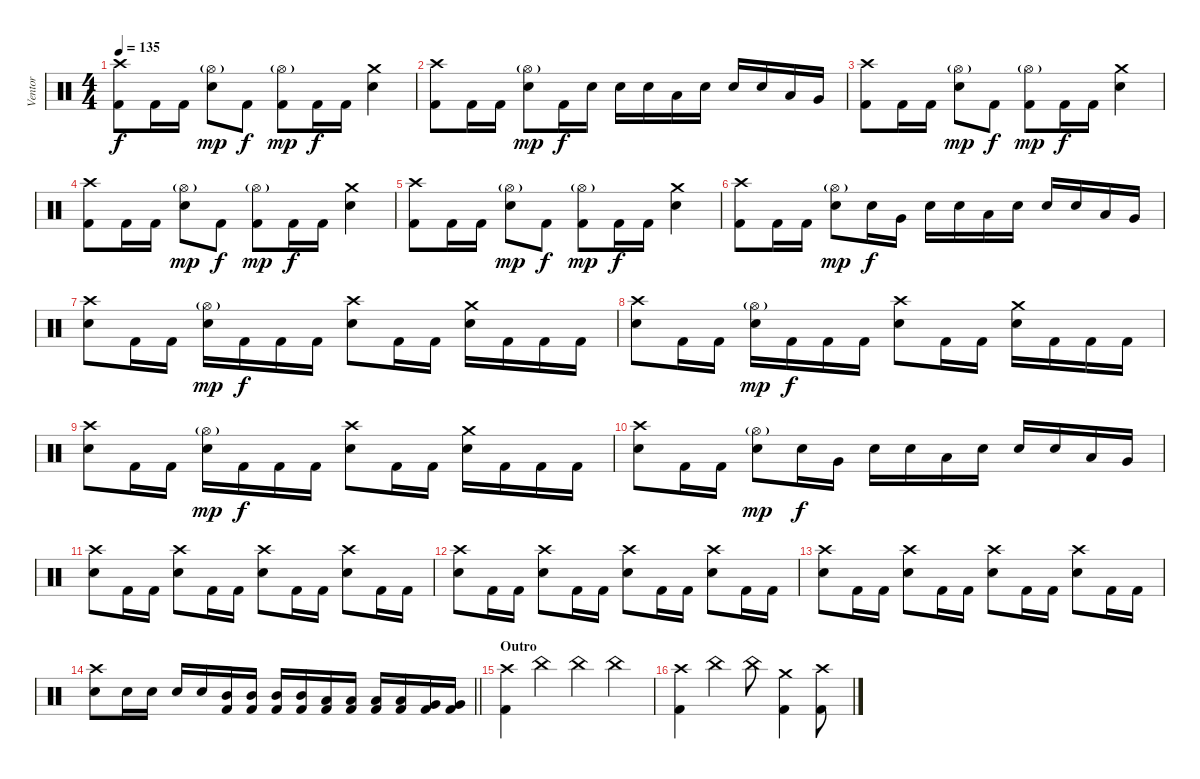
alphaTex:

\track ("Ventor" "Ventor") {instrument percussion}
\staff {score}
\articulation defaults
\ts (4 4)
\tempo 135
\clef neutral
\ks c
("Crash high (hit)" "Kick (hit) 2").8{dy f} "Kick (hit) 2".16 "Kick (hit) 2".16 ("Hi-Hat (open)"{g} "Electric Snare (hit)").8{dy mp} "Kick (hit) 2".8{dy f} ("Hi-Hat (open)"{g} "Kick (hit) 2").8{dy mp} "Kick (hit) 2".16{dy f} "Kick (hit) 2".16 ("Crash medium (hit)" "Electric Snare (hit)").4 |
("Crash high (hit)" "Kick (hit) 2").8 "Kick (hit) 2".16 "Kick (hit) 2".16 ("Hi-Hat (open)"{g} "Electric Snare (hit)").8{dy mp} "Kick (hit) 2".16{dy f} "Electric Snare (hit)".16 "Electric Snare (hit)".16 "Electric Snare (hit)".16 "Low Tom (hit)".16 "Electric Snare (hit)".16 "Electric Snare (hit)".16 "Electric Snare (hit)".16 "Low Tom (hit)".16 "Very Low Tom (hit)".16 |
("Crash high (hit)" "Kick (hit) 2").8 "Kick (hit) 2".16 "Kick (hit) 2".16 ("Hi-Hat (open)"{g} "Electric Snare (hit)").8{dy mp} "Kick (hit) 2".8{dy f} ("Hi-Hat (open)"{g} "Kick (hit) 2").8{dy mp} "Kick (hit) 2".16{dy f} "Kick (hit) 2".16 ("Crash medium (hit)" "Electric Snare (hit)").4 |
("Crash high (hit)" "Kick (hit) 2").8 "Kick (hit) 2".16 "Kick (hit) 2".16 ("Hi-Hat (open)"{g} "Electric Snare (hit)").8{dy mp} "Kick (hit) 2".8{dy f} ("Hi-Hat (open)"{g} "Kick (hit) 2").8{dy mp} "Kick (hit) 2".16{dy f} "Kick (hit) 2".16 ("Crash medium (hit)" "Electric Snare (hit)").4 |
("Crash high (hit)" "Kick (hit) 2").8 "Kick (hit) 2".16 "Kick (hit) 2".16 ("Hi-Hat (open)"{g} "Electric Snare (hit)").8{dy mp} "Kick (hit) 2".8{dy f} ("Hi-Hat (open)"{g} "Kick (hit) 2").8{dy mp} "Kick (hit) 2".16{dy f} "Kick (hit) 2".16 ("Crash medium (hit)" "Electric Snare (hit)").4 |
("Crash high (hit)" "Kick (hit) 2").8 "Kick (hit) 2".16 "Kick (hit) 2".16 ("Hi-Hat (open)"{g} "Electric Snare (hit)").8{dy mp} "Electric Snare (hit)".16{dy f} "Very Low Tom (hit)".16 "Electric Snare (hit)".16 "Electric Snare (hit)".16 "Low Tom (hit)".16 "Electric Snare (hit)".16 "Electric Snare (hit)".16 "Electric Snare (hit)".16 "Low Tom (hit)".16 "Very Low Tom (hit)".16 |
("Crash high (hit)" "Electric Snare (hit)").8 "Kick (hit) 2".16 "Kick (hit) 2".16 ("Hi-Hat (open)"{g} "Electric Snare (hit)").16{dy mp} "Kick (hit) 2".16{dy f} "Kick (hit) 2".16 "Kick (hit) 2".16 ("Crash high (hit)" "Electric Snare (hit)").8 "Kick (hit) 2".16 "Kick (hit) 2".16 ("Crash medium (hit)" "Electric Snare (hit)").16 "Kick (hit) 2".16 "Kick (hit) 2".16 "Kick (hit) 2".16 |
("Crash high (hit)" "Electric Snare (hit)").8 "Kick (hit) 2".16 "Kick (hit) 2".16 ("Hi-Hat (open)"{g} "Electric Snare (hit)").16{dy mp} "Kick (hit) 2".16{dy f} "Kick (hit) 2".16 "Kick (hit) 2".16 ("Crash high (hit)" "Electric Snare (hit)").8 "Kick (hit) 2".16 "Kick (hit) 2".16 ("Crash medium (hit)" "Electric Snare (hit)").16 "Kick (hit) 2".16 "Kick (hit) 2".16 "Kick (hit) 2".16 |
("Crash high (hit)" "Electric Snare (hit)").8 "Kick (hit) 2".16 "Kick (hit) 2".16 ("Hi-Hat (open)"{g} "Electric Snare (hit)").16{dy mp} "Kick (hit) 2".16{dy f} "Kick (hit) 2".16 "Kick (hit) 2".16 ("Crash high (hit)" "Electric Snare (hit)").8 "Kick (hit) 2".16 "Kick (hit) 2".16 ("Crash medium (hit)" "Electric Snare (hit)").16 "Kick (hit) 2".16 "Kick (hit) 2".16 "Kick (hit) 2".16 |
("Crash high (hit)" "Electric Snare (hit)").8 "Kick (hit) 2".16 "Kick (hit) 2".16 ("Hi-Hat (open)"{g} "Electric Snare (hit)").8{dy mp} "Electric Snare (hit)".16{dy f} "Very Low Tom (hit)".16 "Electric Snare (hit)".16 "Electric Snare (hit)".16 "Low Tom (hit)".16 "Electric Snare (hit)".16 "Electric Snare (hit)".16 "Electric Snare (hit)".16 "Low Tom (hit)".16 "Very Low Tom (hit)".16 |
("Crash high (hit)" "Electric Snare (hit)").8 "Kick (hit) 2".16 "Kick (hit) 2".16 ("Crash high (hit)" "Electric Snare (hit)").8 "Kick (hit) 2".16 "Kick (hit) 2".16 ("Crash high (hit)" "Electric Snare (hit)").8 "Kick (hit) 2".16 "Kick (hit) 2".16 ("Crash high (hit)" "Electric Snare (hit)").8 "Kick (hit) 2".16 "Kick (hit) 2".16 |
("Crash high (hit)" "Electric Snare (hit)").8 "Kick (hit) 2".16 "Kick (hit) 2".16 ("Crash high (hit)" "Electric Snare (hit)").8 "Kick (hit) 2".16 "Kick (hit) 2".16 ("Crash high (hit)" "Electric Snare (hit)").8 "Kick (hit) 2".16 "Kick (hit) 2".16 ("Crash high (hit)" "Electric Snare (hit)").8 "Kick (hit) 2".16 "Kick (hit) 2".16 |
("Crash high (hit)" "Electric Snare (hit)").8 "Kick (hit) 2".16 "Kick (hit) 2".16 ("Crash high (hit)" "Electric Snare (hit)").8 "Kick (hit) 2".16 "Kick (hit) 2".16 ("Crash high (hit)" "Electric Snare (hit)").8 "Kick (hit) 2".16 "Kick (hit) 2".16 ("Crash high (hit)" "Electric Snare (hit)").8 "Kick (hit) 2".16 "Kick (hit) 2".16 |
\barLineRight lightlight
("Crash high (hit)" "Electric Snare (hit)").8 "Electric Snare (hit)".16 "Electric Snare (hit)".16 "Electric Snare (hit)".16 "Electric Snare (hit)".16 ("Mid Tom (hit)" "Kick (hit) 2").16 ("Mid Tom (hit)" "Kick (hit) 2").16 ("Mid Tom (hit)" "Kick (hit) 2").16 ("Mid Tom (hit)" "Kick (hit) 2").16 ("Low Tom (hit)" "Kick (hit) 2").16 ("Low Tom (hit)" "Kick (hit) 2").16 ("Low Tom (hit)" "Kick (hit) 2").16 ("Low Tom (hit)" "Kick (hit) 2").16 ("Very Low Tom (hit)" "Kick (hit) 2").16 ("Very Low Tom (hit)" "Kick (hit) 2").16 |
\section ("" "Outro")
("Crash high (hit)" "Kick (hit) 2").4 "China (hit)".4 "China (hit)".4 "China (hit)".4 |
("Crash high (hit)" "Kick (hit) 2").4 "China (hit)".4 "China (hit)".8 ("Crash medium (hit)" "Kick (hit) 2").4 ("Crash high (hit)" "Kick (hit) 2").8
